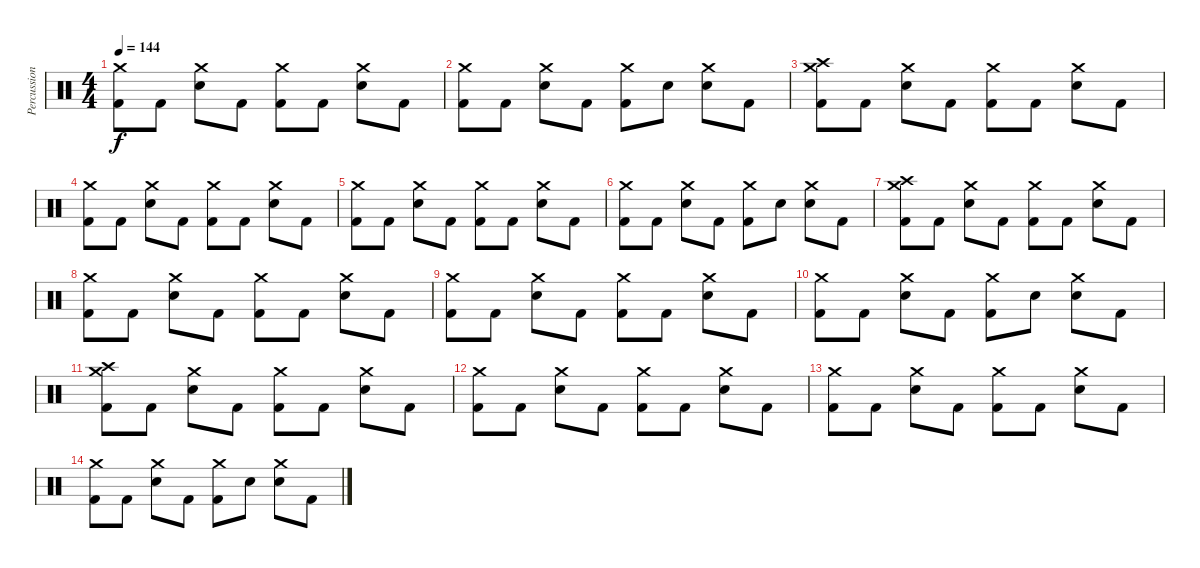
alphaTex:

\track ("Percussion" "Percussion") {instrument percussion}
\staff {score}
\articulation defaults
\ts (4 4)
\tempo 144
\clef neutral
\ks c
("Crash medium (hit)" "Kick (hit) 2").8{dy f} "Kick (hit) 2".8 ("Crash medium (hit)" "Electric Snare (hit)").8 "Kick (hit) 2".8 ("Crash medium (hit)" "Kick (hit) 2").8 "Kick (hit) 2".8 ("Crash medium (hit)" "Electric Snare (hit)").8 "Kick (hit) 2".8 |
("Crash medium (hit)" "Kick (hit) 2").8 "Kick (hit) 2".8 ("Crash medium (hit)" "Electric Snare (hit)").8 "Kick (hit) 2".8 ("Crash medium (hit)" "Kick (hit) 2").8 "Electric Snare (hit)".8 ("Crash medium (hit)" "Electric Snare (hit)").8 "Kick (hit) 2".8 |
("Crash medium (hit)" "Crash high (hit)" "Kick (hit) 2").8 "Kick (hit) 2".8 ("Crash medium (hit)" "Electric Snare (hit)").8 "Kick (hit) 2".8 ("Crash medium (hit)" "Kick (hit) 2").8 "Kick (hit) 2".8 ("Crash medium (hit)" "Electric Snare (hit)").8 "Kick (hit) 2".8 |
("Crash medium (hit)" "Kick (hit) 2").8 "Kick (hit) 2".8 ("Crash medium (hit)" "Electric Snare (hit)").8 "Kick (hit) 2".8 ("Crash medium (hit)" "Kick (hit) 2").8 "Kick (hit) 2".8 ("Crash medium (hit)" "Electric Snare (hit)").8 "Kick (hit) 2".8 |
("Crash medium (hit)" "Kick (hit) 2").8 "Kick (hit) 2".8 ("Crash medium (hit)" "Electric Snare (hit)").8 "Kick (hit) 2".8 ("Crash medium (hit)" "Kick (hit) 2").8 "Kick (hit) 2".8 ("Crash medium (hit)" "Electric Snare (hit)").8 "Kick (hit) 2".8 |
("Crash medium (hit)" "Kick (hit) 2").8 "Kick (hit) 2".8 ("Crash medium (hit)" "Electric Snare (hit)").8 "Kick (hit) 2".8 ("Crash medium (hit)" "Kick (hit) 2").8 "Electric Snare (hit)".8 ("Crash medium (hit)" "Electric Snare (hit)").8 "Kick (hit) 2".8 |
("Crash medium (hit)" "Crash high (hit)" "Kick (hit) 2").8 "Kick (hit) 2".8 ("Crash medium (hit)" "Electric Snare (hit)").8 "Kick (hit) 2".8 ("Crash medium (hit)" "Kick (hit) 2").8 "Kick (hit) 2".8 ("Crash medium (hit)" "Electric Snare (hit)").8 "Kick (hit) 2".8 |
("Crash medium (hit)" "Kick (hit) 2").8 "Kick (hit) 2".8 ("Crash medium (hit)" "Electric Snare (hit)").8 "Kick (hit) 2".8 ("Crash medium (hit)" "Kick (hit) 2").8 "Kick (hit) 2".8 ("Crash medium (hit)" "Electric Snare (hit)").8 "Kick (hit) 2".8 |
("Crash medium (hit)" "Kick (hit) 2").8 "Kick (hit) 2".8 ("Crash medium (hit)" "Electric Snare (hit)").8 "Kick (hit) 2".8 ("Crash medium (hit)" "Kick (hit) 2").8 "Kick (hit) 2".8 ("Crash medium (hit)" "Electric Snare (hit)").8 "Kick (hit) 2".8 |
("Crash medium (hit)" "Kick (hit) 2").8 "Kick (hit) 2".8 ("Crash medium (hit)" "Electric Snare (hit)").8 "Kick (hit) 2".8 ("Crash medium (hit)" "Kick (hit) 2").8 "Electric Snare (hit)".8 ("Crash medium (hit)" "Electric Snare (hit)").8 "Kick (hit) 2".8 |
("Crash medium (hit)" "Crash high (hit)" "Kick (hit) 2").8 "Kick (hit) 2".8 ("Crash medium (hit)" "Electric Snare (hit)").8 "Kick (hit) 2".8 ("Crash medium (hit)" "Kick (hit) 2").8 "Kick (hit) 2".8 ("Crash medium (hit)" "Electric Snare (hit)").8 "Kick (hit) 2".8 |
("Crash medium (hit)" "Kick (hit) 2").8 "Kick (hit) 2".8 ("Crash medium (hit)" "Electric Snare (hit)").8 "Kick (hit) 2".8 ("Crash medium (hit)" "Kick (hit) 2").8 "Kick (hit) 2".8 ("Crash medium (hit)" "Electric Snare (hit)").8 "Kick (hit) 2".8 |
("Crash medium (hit)" "Kick (hit) 2").8 "Kick (hit) 2".8 ("Crash medium (hit)" "Electric Snare (hit)").8 "Kick (hit) 2".8 ("Crash medium (hit)" "Kick (hit) 2").8 "Kick (hit) 2".8 ("Crash medium (hit)" "Electric Snare (hit)").8 "Kick (hit) 2".8 |
("Crash medium (hit)" "Kick (hit) 2").8 "Kick (hit) 2".8 ("Crash medium (hit)" "Electric Snare (hit)").8 "Kick (hit) 2".8 ("Crash medium (hit)" "Kick (hit) 2").8 "Electric Snare (hit)".8 ("Crash medium (hit)" "Electric Snare (hit)").8 "Kick (hit) 2".8
